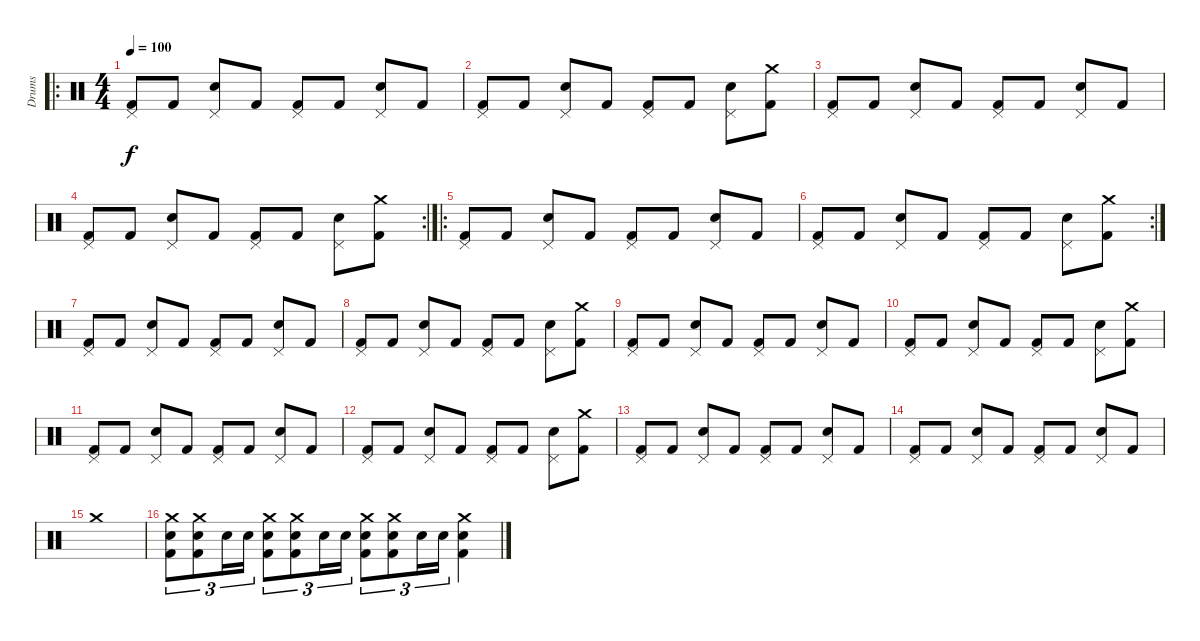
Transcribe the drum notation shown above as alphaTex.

\track ("Drums" "Drums") {instrument percussion}
\staff {score}
\articulation defaults
\ro
\ts (4 4)
\tempo 100
\clef neutral
\ks c
("Pedal Hi-Hat (hit)" "Kick (hit) 2").8{dy f} "Kick (hit) 2".8 ("Pedal Hi-Hat (hit)" "Snare (hit) 2").8 "Kick (hit) 2".8 ("Pedal Hi-Hat (hit)" "Kick (hit) 2").8 "Kick (hit) 2".8 ("Pedal Hi-Hat (hit)" "Snare (hit) 2").8 "Kick (hit) 2".8 |
("Pedal Hi-Hat (hit)" "Kick (hit) 2").8 "Kick (hit) 2".8 ("Pedal Hi-Hat (hit)" "Snare (hit) 2").8 "Kick (hit) 2".8 ("Pedal Hi-Hat (hit)" "Kick (hit) 2").8 "Kick (hit) 2".8 ("Pedal Hi-Hat (hit)" "Snare (hit) 2").8 ("Crash medium (hit)" "Kick (hit) 2").8 |
("Pedal Hi-Hat (hit)" "Kick (hit) 2").8 "Kick (hit) 2".8 ("Pedal Hi-Hat (hit)" "Snare (hit) 2").8 "Kick (hit) 2".8 ("Pedal Hi-Hat (hit)" "Kick (hit) 2").8 "Kick (hit) 2".8 ("Pedal Hi-Hat (hit)" "Snare (hit) 2").8 "Kick (hit) 2".8 |
\rc 2
("Pedal Hi-Hat (hit)" "Kick (hit) 2").8 "Kick (hit) 2".8 ("Pedal Hi-Hat (hit)" "Snare (hit) 2").8 "Kick (hit) 2".8 ("Pedal Hi-Hat (hit)" "Kick (hit) 2").8 "Kick (hit) 2".8 ("Pedal Hi-Hat (hit)" "Snare (hit) 2").8 ("Crash medium (hit)" "Kick (hit) 2").8 |
\ro
("Pedal Hi-Hat (hit)" "Kick (hit) 2").8 "Kick (hit) 2".8 ("Pedal Hi-Hat (hit)" "Snare (hit) 2").8 "Kick (hit) 2".8 ("Pedal Hi-Hat (hit)" "Kick (hit) 2").8 "Kick (hit) 2".8 ("Pedal Hi-Hat (hit)" "Snare (hit) 2").8 "Kick (hit) 2".8 |
\rc 2
("Pedal Hi-Hat (hit)" "Kick (hit) 2").8 "Kick (hit) 2".8 ("Pedal Hi-Hat (hit)" "Snare (hit) 2").8 "Kick (hit) 2".8 ("Pedal Hi-Hat (hit)" "Kick (hit) 2").8 "Kick (hit) 2".8 ("Pedal Hi-Hat (hit)" "Snare (hit) 2").8 ("Crash medium (hit)" "Kick (hit) 2").8 |
("Pedal Hi-Hat (hit)" "Kick (hit) 2").8 "Kick (hit) 2".8 ("Pedal Hi-Hat (hit)" "Snare (hit) 2").8 "Kick (hit) 2".8 ("Pedal Hi-Hat (hit)" "Kick (hit) 2").8 "Kick (hit) 2".8 ("Pedal Hi-Hat (hit)" "Snare (hit) 2").8 "Kick (hit) 2".8 |
("Pedal Hi-Hat (hit)" "Kick (hit) 2").8 "Kick (hit) 2".8 ("Pedal Hi-Hat (hit)" "Snare (hit) 2").8 "Kick (hit) 2".8 ("Pedal Hi-Hat (hit)" "Kick (hit) 2").8 "Kick (hit) 2".8 ("Pedal Hi-Hat (hit)" "Snare (hit) 2").8 ("Crash medium (hit)" "Kick (hit) 2").8 |
("Pedal Hi-Hat (hit)" "Kick (hit) 2").8 "Kick (hit) 2".8 ("Pedal Hi-Hat (hit)" "Snare (hit) 2").8 "Kick (hit) 2".8 ("Pedal Hi-Hat (hit)" "Kick (hit) 2").8 "Kick (hit) 2".8 ("Pedal Hi-Hat (hit)" "Snare (hit) 2").8 "Kick (hit) 2".8 |
("Pedal Hi-Hat (hit)" "Kick (hit) 2").8 "Kick (hit) 2".8 ("Pedal Hi-Hat (hit)" "Snare (hit) 2").8 "Kick (hit) 2".8 ("Pedal Hi-Hat (hit)" "Kick (hit) 2").8 "Kick (hit) 2".8 ("Pedal Hi-Hat (hit)" "Snare (hit) 2").8 ("Crash medium (hit)" "Kick (hit) 2").8 |
("Pedal Hi-Hat (hit)" "Kick (hit) 2").8 "Kick (hit) 2".8 ("Pedal Hi-Hat (hit)" "Snare (hit) 2").8 "Kick (hit) 2".8 ("Pedal Hi-Hat (hit)" "Kick (hit) 2").8 "Kick (hit) 2".8 ("Pedal Hi-Hat (hit)" "Snare (hit) 2").8 "Kick (hit) 2".8 |
("Pedal Hi-Hat (hit)" "Kick (hit) 2").8 "Kick (hit) 2".8 ("Pedal Hi-Hat (hit)" "Snare (hit) 2").8 "Kick (hit) 2".8 ("Pedal Hi-Hat (hit)" "Kick (hit) 2").8 "Kick (hit) 2".8 ("Pedal Hi-Hat (hit)" "Snare (hit) 2").8 ("Crash medium (hit)" "Kick (hit) 2").8 |
("Pedal Hi-Hat (hit)" "Kick (hit) 2").8 "Kick (hit) 2".8 ("Pedal Hi-Hat (hit)" "Snare (hit) 2").8 "Kick (hit) 2".8 ("Pedal Hi-Hat (hit)" "Kick (hit) 2").8 "Kick (hit) 2".8 ("Pedal Hi-Hat (hit)" "Snare (hit) 2").8 "Kick (hit) 2".8 |
("Pedal Hi-Hat (hit)" "Kick (hit) 2").8 "Kick (hit) 2".8 ("Pedal Hi-Hat (hit)" "Snare (hit) 2").8 "Kick (hit) 2".8 ("Pedal Hi-Hat (hit)" "Kick (hit) 2").8 "Kick (hit) 2".8 ("Pedal Hi-Hat (hit)" "Snare (hit) 2").8 "Kick (hit) 2".8 |
"Crash medium (hit)".1 |
("Crash medium (hit)" "Snare (hit) 2" "Kick (hit) 2").8{tu (3 2)} ("Crash medium (hit)" "Snare (hit) 2" "Kick (hit) 2").8{tu (3 2)} "Snare (hit) 2".16{tu (3 2)} "Snare (hit) 2".16{tu (3 2)} ("Crash medium (hit)" "Snare (hit) 2" "Kick (hit) 2").8{tu (3 2)} ("Crash medium (hit)" "Snare (hit) 2" "Kick (hit) 2").8{tu (3 2)} "Snare (hit) 2".16{tu (3 2)} "Snare (hit) 2".16{tu (3 2)} ("Crash medium (hit)" "Snare (hit) 2" "Kick (hit) 2").8{tu (3 2)} ("Crash medium (hit)" "Snare (hit) 2" "Kick (hit) 2").8{tu (3 2)} "Snare (hit) 2".16{tu (3 2)} "Snare (hit) 2".16{tu (3 2)} ("Crash medium (hit)" "Snare (hit) 2" "Kick (hit) 2").4
